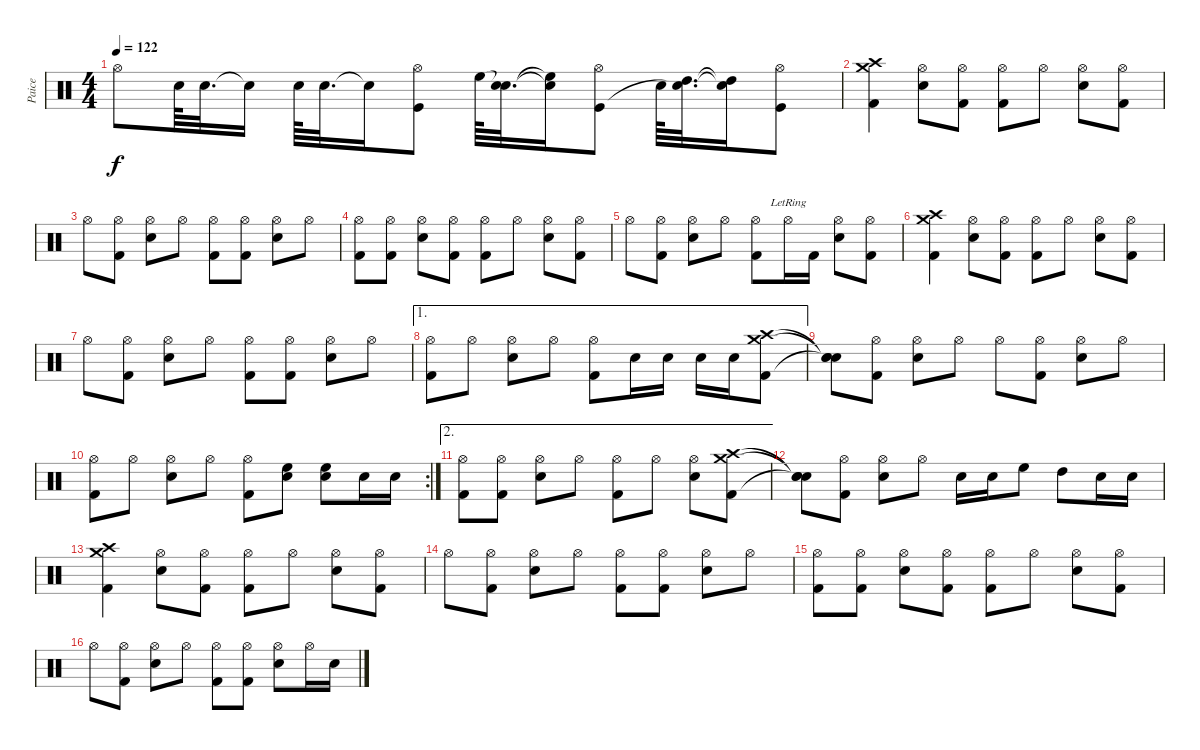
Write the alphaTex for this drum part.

\track ("Paice" "Paice") {instrument percussion}
\staff {score}
\articulation defaults
\ts (4 4)
\tempo 122
\clef neutral
\ks c "Hi-Hat (open)".8{dy f} "Snare (hit) 2".64 "Snare (hit) 2".32{d} "Snare (hit)"{t}.16 "Snare (hit) 2".64 "Snare (hit) 2".32{d} "Snare (hit)"{t}.16
("Hi-Hat (open)" "Kick (hit)").8 "High Floor Tom (hit)".64 ("Snare (hit)"{t} "Snare (hit) 2").32{d} ("High Floor Tom (hit)"{t} "Snare (hit) 2"{t}).16 ("Hi-Hat (open)" "Kick (hit)").8 "Snare (hit) 2".64 ("High Tom (hit)" "Snare (hit)"{t}).32{d} ("High Tom (hit)"{t} "Snare (hit) 2"{t}).16 ("Hi-Hat (open)" "Kick (hit)").8 |
("Crash high (hit)" "Crash medium (hit)" "Kick (hit) 2").4 ("Hi-Hat (open)" "Electric Snare (hit)").8 ("Hi-Hat (open)" "Kick (hit) 2").8 ("Hi-Hat (open)" "Kick (hit) 2").8 "Hi-Hat (open)".8 ("Hi-Hat (open)" "Electric Snare (hit)").8 ("Hi-Hat (open)" "Kick (hit) 2").8 |
"Hi-Hat (open)".8 ("Hi-Hat (open)" "Kick (hit) 2").8 ("Hi-Hat (open)" "Electric Snare (hit)").8 "Hi-Hat (open)".8 ("Hi-Hat (open)" "Kick (hit) 2").8 ("Hi-Hat (open)" "Kick (hit) 2").8 ("Hi-Hat (open)" "Electric Snare (hit)").8 "Hi-Hat (open)".8 |
("Hi-Hat (open)" "Kick (hit) 2").8 ("Hi-Hat (open)" "Kick (hit) 2").8 ("Hi-Hat (open)" "Electric Snare (hit)").8 ("Hi-Hat (open)" "Kick (hit) 2").8 ("Hi-Hat (open)" "Kick (hit) 2").8 "Hi-Hat (open)".8 ("Hi-Hat (open)" "Electric Snare (hit)").8 ("Hi-Hat (open)" "Kick (hit) 2").8 |
"Hi-Hat (open)".8 ("Hi-Hat (open)" "Kick (hit) 2").8 ("Hi-Hat (open)" "Electric Snare (hit)").8 "Hi-Hat (open)".8 ("Hi-Hat (open)" "Kick (hit) 2").8 "Hi-Hat (open)"{lr}.16 "Kick (hit) 2".16 ("Hi-Hat (open)" "Electric Snare (hit)").8 ("Hi-Hat (open)" "Kick (hit) 2").8 |
("Crash high (hit)" "Crash medium (hit)" "Kick (hit) 2").4 ("Hi-Hat (open)" "Electric Snare (hit)").8 ("Hi-Hat (open)" "Kick (hit) 2").8 ("Hi-Hat (open)" "Kick (hit) 2").8 "Hi-Hat (open)".8 ("Hi-Hat (open)" "Electric Snare (hit)").8 ("Hi-Hat (open)" "Kick (hit) 2").8 |
"Hi-Hat (open)".8 ("Hi-Hat (open)" "Kick (hit) 2").8 ("Hi-Hat (open)" "Electric Snare (hit)").8 "Hi-Hat (open)".8 ("Hi-Hat (open)" "Kick (hit) 2").8 ("Hi-Hat (open)" "Kick (hit) 2").8 ("Hi-Hat (open)" "Electric Snare (hit)").8 "Hi-Hat (open)".8 |
\ae 1
("Hi-Hat (open)" "Kick (hit) 2").8 "Hi-Hat (open)".8 ("Hi-Hat (open)" "Electric Snare (hit)").8 "Hi-Hat (open)".8 ("Hi-Hat (open)" "Kick (hit) 2").8 "Electric Snare (hit)".16 "Electric Snare (hit)".16 "Electric Snare (hit)".16 "Electric Snare (hit)".16 ("Crash high (hit)" "Crash medium (hit)" "Kick (hit) 2").8 |
("Snare (hit)"{t} "Snare (hit)"{t} "Snare (hit)"{t}).8 ("Hi-Hat (open)" "Kick (hit) 2").8 ("Hi-Hat (open)" "Electric Snare (hit)").8 "Hi-Hat (open)".8 "Hi-Hat (open)".8 ("Hi-Hat (open)" "Kick (hit) 2").8 ("Hi-Hat (open)" "Electric Snare (hit)").8 "Hi-Hat (open)".8 |
\rc 2
("Hi-Hat (open)" "Kick (hit) 2").8 "Hi-Hat (open)".8 ("Hi-Hat (open)" "Electric Snare (hit)").8 "Hi-Hat (open)".8 ("Hi-Hat (open)" "Kick (hit) 2").8 ("High Floor Tom (hit)" "Electric Snare (hit)").8 ("High Floor Tom (hit)" "Electric Snare (hit)").8 "Electric Snare (hit)".16 "Electric Snare (hit)".16 |
\ae 2
("Hi-Hat (open)" "Kick (hit) 2").8 ("Hi-Hat (open)" "Kick (hit) 2").8 ("Hi-Hat (open)" "Electric Snare (hit)").8 "Hi-Hat (open)".8 ("Hi-Hat (open)" "Kick (hit) 2").8 "Hi-Hat (open)".8 ("Hi-Hat (open)" "Electric Snare (hit)").8 ("Crash high (hit)" "Crash medium (hit)" "Kick (hit) 2").8 |
("Snare (hit)"{t} "Snare (hit)"{t} "Snare (hit)"{t}).8 ("Hi-Hat (open)" "Kick (hit) 2").8 ("Hi-Hat (open)" "Electric Snare (hit)").8 "Hi-Hat (open)".8 "Electric Snare (hit)".16 "Electric Snare (hit)".16 "High Floor Tom (hit)".8 "High Tom (hit)".8 "Electric Snare (hit)".16 "Electric Snare (hit)".16 |
("Crash high (hit)" "Crash medium (hit)" "Kick (hit) 2").4 ("Hi-Hat (open)" "Electric Snare (hit)").8 ("Hi-Hat (open)" "Kick (hit) 2").8 ("Hi-Hat (open)" "Kick (hit) 2").8 "Hi-Hat (open)".8 ("Hi-Hat (open)" "Electric Snare (hit)").8 ("Hi-Hat (open)" "Kick (hit) 2").8 |
"Hi-Hat (open)".8 ("Hi-Hat (open)" "Kick (hit) 2").8 ("Hi-Hat (open)" "Electric Snare (hit)").8 "Hi-Hat (open)".8 ("Hi-Hat (open)" "Kick (hit) 2").8 ("Hi-Hat (open)" "Kick (hit) 2").8 ("Hi-Hat (open)" "Electric Snare (hit)").8 "Hi-Hat (open)".8 |
("Hi-Hat (open)" "Kick (hit) 2").8 ("Hi-Hat (open)" "Kick (hit) 2").8 ("Hi-Hat (open)" "Electric Snare (hit)").8 ("Hi-Hat (open)" "Kick (hit) 2").8 ("Hi-Hat (open)" "Kick (hit) 2").8 "Hi-Hat (open)".8 ("Hi-Hat (open)" "Electric Snare (hit)").8 ("Hi-Hat (open)" "Kick (hit) 2").8 |
"Hi-Hat (open)".8 ("Hi-Hat (open)" "Kick (hit) 2").8 ("Hi-Hat (open)" "Electric Snare (hit)").8 "Hi-Hat (open)".8 ("Hi-Hat (open)" "Kick (hit) 2").8 ("Hi-Hat (open)" "Kick (hit) 2").8 ("Hi-Hat (open)" "Electric Snare (hit)").8 "Hi-Hat (open)".16 "Electric Snare (hit)".16
